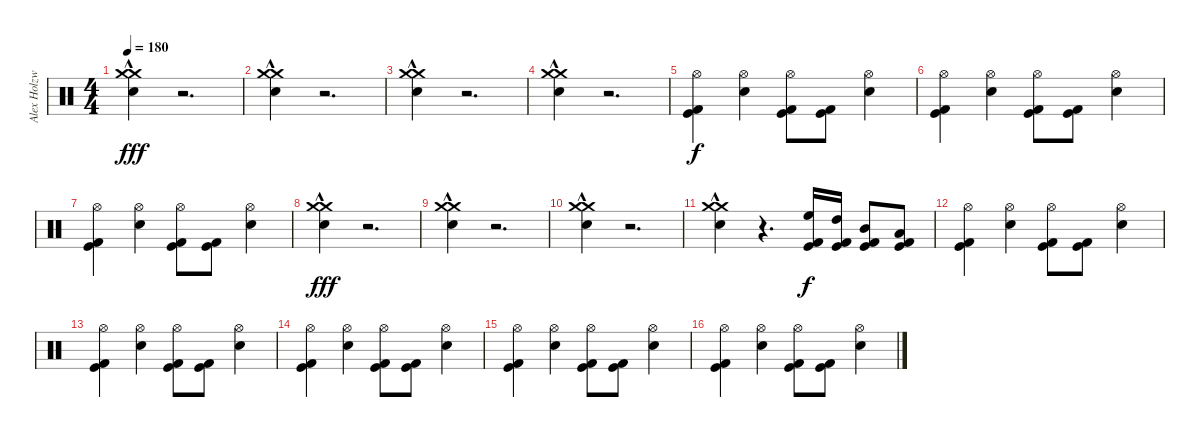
\track ("Alex Holzwarth" "Alex Holzw") {instrument percussion}
\staff {score}
\articulation defaults
\ts (4 4)
\tempo 180
\clef neutral
\ks c
("Crash medium (hit)"{hac} "Snare (hit) 2" "Crash medium (hit)"{hac}).4{dy fff volume 16} r.2{d volume 0} |
("Crash medium (hit)"{hac} "Snare (hit) 2" "Crash medium (hit)"{hac}).4{volume 16} r.2{d volume 0} |
("Crash medium (hit)"{hac} "Snare (hit) 2" "Crash medium (hit)"{hac}).4{volume 16} r.2{d volume 0} |
("Crash medium (hit)"{hac} "Snare (hit) 2" "Crash medium (hit)"{hac}).4{volume 16} r.2{d volume 0} |
("Kick (hit)" "Kick (hit) 2" "Hi-Hat (open)").4{dy f volume 16} ("Snare (hit) 2" "Hi-Hat (open)").4 ("Kick (hit)" "Kick (hit) 2" "Hi-Hat (open)").8 ("Kick (hit)" "Kick (hit) 2").8 ("Snare (hit) 2" "Hi-Hat (open)").4 |
("Kick (hit)" "Kick (hit) 2" "Hi-Hat (open)").4{volume 16} ("Snare (hit) 2" "Hi-Hat (open)").4 ("Kick (hit)" "Kick (hit) 2" "Hi-Hat (open)").8 ("Kick (hit)" "Kick (hit) 2").8 ("Snare (hit) 2" "Hi-Hat (open)").4 |
("Kick (hit)" "Kick (hit) 2" "Hi-Hat (open)").4{volume 16} ("Snare (hit) 2" "Hi-Hat (open)").4 ("Kick (hit)" "Kick (hit) 2" "Hi-Hat (open)").8 ("Kick (hit)" "Kick (hit) 2").8 ("Snare (hit) 2" "Hi-Hat (open)").4 |
("Crash medium (hit)"{hac} "Snare (hit) 2" "Crash medium (hit)"{hac}).4{dy fff volume 16} r.2{d volume 0} |
("Crash medium (hit)"{hac} "Snare (hit) 2" "Crash medium (hit)"{hac}).4{volume 16} r.2{d volume 0} |
("Crash medium (hit)"{hac} "Snare (hit) 2" "Crash medium (hit)"{hac}).4{volume 16} r.2{d volume 0} |
("Crash medium (hit)"{hac} "Snare (hit) 2" "Crash medium (hit)"{hac}).4{volume 16} r.4{d volume 0} ("Kick (hit) 2" "Kick (hit)" "High Floor Tom (hit)").16{dy f volume 16} ("Kick (hit) 2" "Kick (hit)" "High Tom (hit)").16 ("Kick (hit)" "Kick (hit) 2" "Mid Tom (hit)").8 ("Kick (hit) 2" "Kick (hit)" "Low Tom (hit)").8 |
("Kick (hit)" "Kick (hit) 2" "Hi-Hat (open)").4{volume 16} ("Snare (hit) 2" "Hi-Hat (open)").4 ("Kick (hit)" "Kick (hit) 2" "Hi-Hat (open)").8 ("Kick (hit)" "Kick (hit) 2").8 ("Snare (hit) 2" "Hi-Hat (open)").4 |
("Kick (hit)" "Kick (hit) 2" "Hi-Hat (open)").4{volume 16} ("Snare (hit) 2" "Hi-Hat (open)").4 ("Kick (hit)" "Kick (hit) 2" "Hi-Hat (open)").8 ("Kick (hit)" "Kick (hit) 2").8 ("Snare (hit) 2" "Hi-Hat (open)").4 |
("Kick (hit)" "Kick (hit) 2" "Hi-Hat (open)").4{volume 16} ("Snare (hit) 2" "Hi-Hat (open)").4 ("Kick (hit)" "Kick (hit) 2" "Hi-Hat (open)").8 ("Kick (hit)" "Kick (hit) 2").8 ("Snare (hit) 2" "Hi-Hat (open)").4 |
("Kick (hit)" "Kick (hit) 2" "Hi-Hat (open)").4{volume 16} ("Snare (hit) 2" "Hi-Hat (open)").4 ("Kick (hit)" "Kick (hit) 2" "Hi-Hat (open)").8 ("Kick (hit)" "Kick (hit) 2").8 ("Snare (hit) 2" "Hi-Hat (open)").4 |
("Kick (hit)" "Kick (hit) 2" "Hi-Hat (open)").4{volume 16} ("Snare (hit) 2" "Hi-Hat (open)").4 ("Kick (hit)" "Kick (hit) 2" "Hi-Hat (open)").8 ("Kick (hit)" "Kick (hit) 2").8 ("Snare (hit) 2" "Hi-Hat (open)").4
